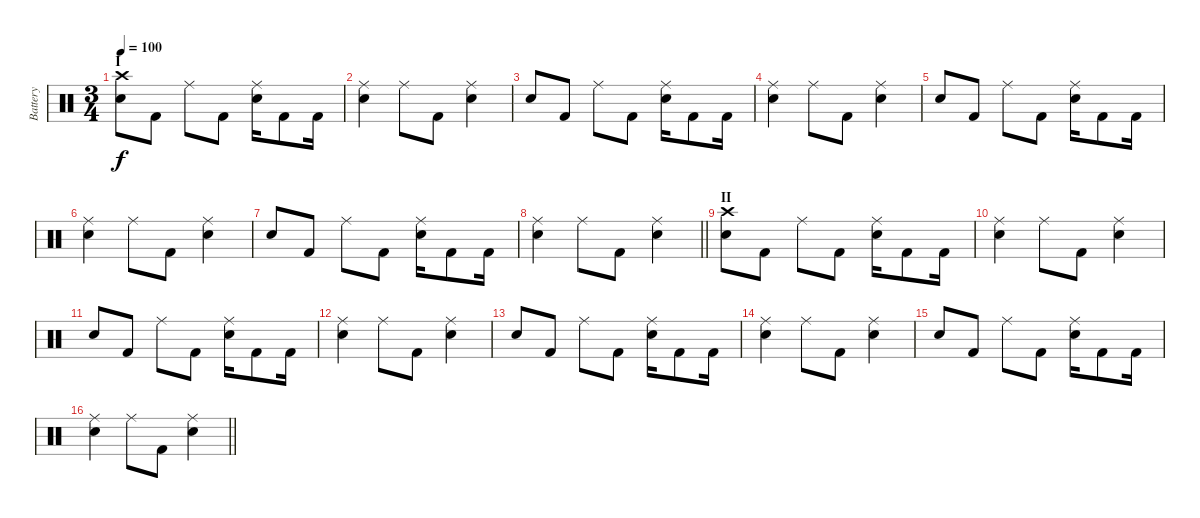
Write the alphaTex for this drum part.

\track ("Battery" "Battery") {instrument percussion}
\staff {score}
\articulation defaults
\ts (3 4)
\section ("" "I")
\tempo 100
\clef neutral
\ks c
("Crash high (hit)" "Electric Snare (hit)").8{dy f} "Kick (hit) 2".8 "Ride (middle)".8 "Kick (hit) 2".8 ("Ride (middle)" "Electric Snare (hit)").16 "Kick (hit) 2".8 "Kick (hit) 2".16 |
("Ride (middle)" "Electric Snare (hit)").4 "Ride (middle)".8 "Kick (hit) 2".8 ("Ride (middle)" "Electric Snare (hit)").4 |
"Electric Snare (hit)".8 "Kick (hit) 2".8 "Ride (middle)".8 "Kick (hit) 2".8 ("Ride (middle)" "Electric Snare (hit)").16 "Kick (hit) 2".8 "Kick (hit) 2".16 |
("Ride (middle)" "Electric Snare (hit)").4 "Ride (middle)".8 "Kick (hit) 2".8 ("Ride (middle)" "Electric Snare (hit)").4 |
"Electric Snare (hit)".8 "Kick (hit) 2".8 "Ride (middle)".8 "Kick (hit) 2".8 ("Ride (middle)" "Electric Snare (hit)").16 "Kick (hit) 2".8 "Kick (hit) 2".16 |
("Ride (middle)" "Electric Snare (hit)").4 "Ride (middle)".8 "Kick (hit) 2".8 ("Ride (middle)" "Electric Snare (hit)").4 |
"Electric Snare (hit)".8 "Kick (hit) 2".8 "Ride (middle)".8 "Kick (hit) 2".8 ("Ride (middle)" "Electric Snare (hit)").16 "Kick (hit) 2".8 "Kick (hit) 2".16 |
\barLineRight lightlight
("Ride (middle)" "Electric Snare (hit)").4 "Ride (middle)".8 "Kick (hit) 2".8 ("Ride (middle)" "Electric Snare (hit)").4 |
\section ("" "II")
("Crash high (hit)" "Electric Snare (hit)").8 "Kick (hit) 2".8 "Ride (middle)".8 "Kick (hit) 2".8 ("Ride (middle)" "Electric Snare (hit)").16 "Kick (hit) 2".8 "Kick (hit) 2".16 |
("Ride (middle)" "Electric Snare (hit)").4 "Ride (middle)".8 "Kick (hit) 2".8 ("Ride (middle)" "Electric Snare (hit)").4 |
"Electric Snare (hit)".8 "Kick (hit) 2".8 "Ride (middle)".8 "Kick (hit) 2".8 ("Ride (middle)" "Electric Snare (hit)").16 "Kick (hit) 2".8 "Kick (hit) 2".16 |
("Ride (middle)" "Electric Snare (hit)").4 "Ride (middle)".8 "Kick (hit) 2".8 ("Ride (middle)" "Electric Snare (hit)").4 |
"Electric Snare (hit)".8 "Kick (hit) 2".8 "Ride (middle)".8 "Kick (hit) 2".8 ("Ride (middle)" "Electric Snare (hit)").16 "Kick (hit) 2".8 "Kick (hit) 2".16 |
("Ride (middle)" "Electric Snare (hit)").4 "Ride (middle)".8 "Kick (hit) 2".8 ("Ride (middle)" "Electric Snare (hit)").4 |
"Electric Snare (hit)".8 "Kick (hit) 2".8 "Ride (middle)".8 "Kick (hit) 2".8 ("Ride (middle)" "Electric Snare (hit)").16 "Kick (hit) 2".8 "Kick (hit) 2".16 |
\barLineRight lightlight
("Ride (middle)" "Electric Snare (hit)").4 "Ride (middle)".8 "Kick (hit) 2".8 ("Ride (middle)" "Electric Snare (hit)").4
